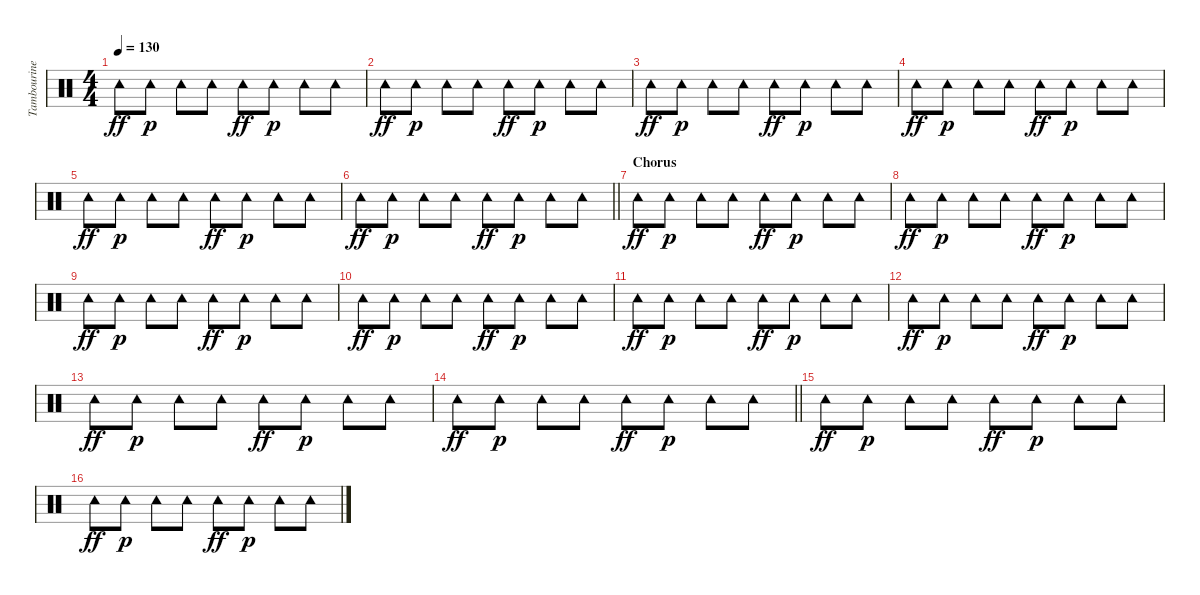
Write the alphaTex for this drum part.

\track ("Tambourine" "Tambourine") {instrument percussion}
\staff {score}
\articulation defaults
\ts (4 4)
\tempo 130
\clef neutral
\ks c "Tambourine (hit)".8{dy ff} "Tambourine (hit)".8{dy p} "Tambourine (hit)".8 "Tambourine (hit)".8 "Tambourine (hit)".8{dy ff} "Tambourine (hit)".8{dy p} "Tambourine (hit)".8 "Tambourine (hit)".8
|
"Tambourine (hit)".8{dy ff} "Tambourine (hit)".8{dy p} "Tambourine (hit)".8 "Tambourine (hit)".8 "Tambourine (hit)".8{dy ff} "Tambourine (hit)".8{dy p} "Tambourine (hit)".8 "Tambourine (hit)".8 |
"Tambourine (hit)".8{dy ff} "Tambourine (hit)".8{dy p} "Tambourine (hit)".8 "Tambourine (hit)".8 "Tambourine (hit)".8{dy ff} "Tambourine (hit)".8{dy p} "Tambourine (hit)".8 "Tambourine (hit)".8 |
"Tambourine (hit)".8{dy ff} "Tambourine (hit)".8{dy p} "Tambourine (hit)".8 "Tambourine (hit)".8 "Tambourine (hit)".8{dy ff} "Tambourine (hit)".8{dy p} "Tambourine (hit)".8 "Tambourine (hit)".8 |
"Tambourine (hit)".8{dy ff} "Tambourine (hit)".8{dy p} "Tambourine (hit)".8 "Tambourine (hit)".8 "Tambourine (hit)".8{dy ff} "Tambourine (hit)".8{dy p} "Tambourine (hit)".8 "Tambourine (hit)".8 |
\barLineRight lightlight "Tambourine (hit)".8{dy ff} "Tambourine (hit)".8{dy p} "Tambourine (hit)".8 "Tambourine (hit)".8 "Tambourine (hit)".8{dy ff} "Tambourine (hit)".8{dy p} "Tambourine (hit)".8 "Tambourine (hit)".8
|
\section ("" "Chorus")
"Tambourine (hit)".8{dy ff} "Tambourine (hit)".8{dy p} "Tambourine (hit)".8 "Tambourine (hit)".8 "Tambourine (hit)".8{dy ff} "Tambourine (hit)".8{dy p} "Tambourine (hit)".8 "Tambourine (hit)".8 |
"Tambourine (hit)".8{dy ff} "Tambourine (hit)".8{dy p} "Tambourine (hit)".8 "Tambourine (hit)".8 "Tambourine (hit)".8{dy ff} "Tambourine (hit)".8{dy p} "Tambourine (hit)".8 "Tambourine (hit)".8 |
"Tambourine (hit)".8{dy ff} "Tambourine (hit)".8{dy p} "Tambourine (hit)".8 "Tambourine (hit)".8 "Tambourine (hit)".8{dy ff} "Tambourine (hit)".8{dy p} "Tambourine (hit)".8 "Tambourine (hit)".8 |
"Tambourine (hit)".8{dy ff} "Tambourine (hit)".8{dy p} "Tambourine (hit)".8 "Tambourine (hit)".8 "Tambourine (hit)".8{dy ff} "Tambourine (hit)".8{dy p} "Tambourine (hit)".8 "Tambourine (hit)".8 |
"Tambourine (hit)".8{dy ff} "Tambourine (hit)".8{dy p} "Tambourine (hit)".8 "Tambourine (hit)".8 "Tambourine (hit)".8{dy ff} "Tambourine (hit)".8{dy p} "Tambourine (hit)".8 "Tambourine (hit)".8 |
"Tambourine (hit)".8{dy ff} "Tambourine (hit)".8{dy p} "Tambourine (hit)".8 "Tambourine (hit)".8 "Tambourine (hit)".8{dy ff} "Tambourine (hit)".8{dy p} "Tambourine (hit)".8 "Tambourine (hit)".8 |
"Tambourine (hit)".8{dy ff} "Tambourine (hit)".8{dy p} "Tambourine (hit)".8 "Tambourine (hit)".8 "Tambourine (hit)".8{dy ff} "Tambourine (hit)".8{dy p} "Tambourine (hit)".8 "Tambourine (hit)".8 |
\barLineRight lightlight "Tambourine (hit)".8{dy ff} "Tambourine (hit)".8{dy p} "Tambourine (hit)".8 "Tambourine (hit)".8 "Tambourine (hit)".8{dy ff} "Tambourine (hit)".8{dy p} "Tambourine (hit)".8 "Tambourine (hit)".8
|
"Tambourine (hit)".8{dy ff} "Tambourine (hit)".8{dy p} "Tambourine (hit)".8 "Tambourine (hit)".8 "Tambourine (hit)".8{dy ff} "Tambourine (hit)".8{dy p} "Tambourine (hit)".8 "Tambourine (hit)".8 |
"Tambourine (hit)".8{dy ff} "Tambourine (hit)".8{dy p} "Tambourine (hit)".8 "Tambourine (hit)".8 "Tambourine (hit)".8{dy ff} "Tambourine (hit)".8{dy p} "Tambourine (hit)".8 "Tambourine (hit)".8
